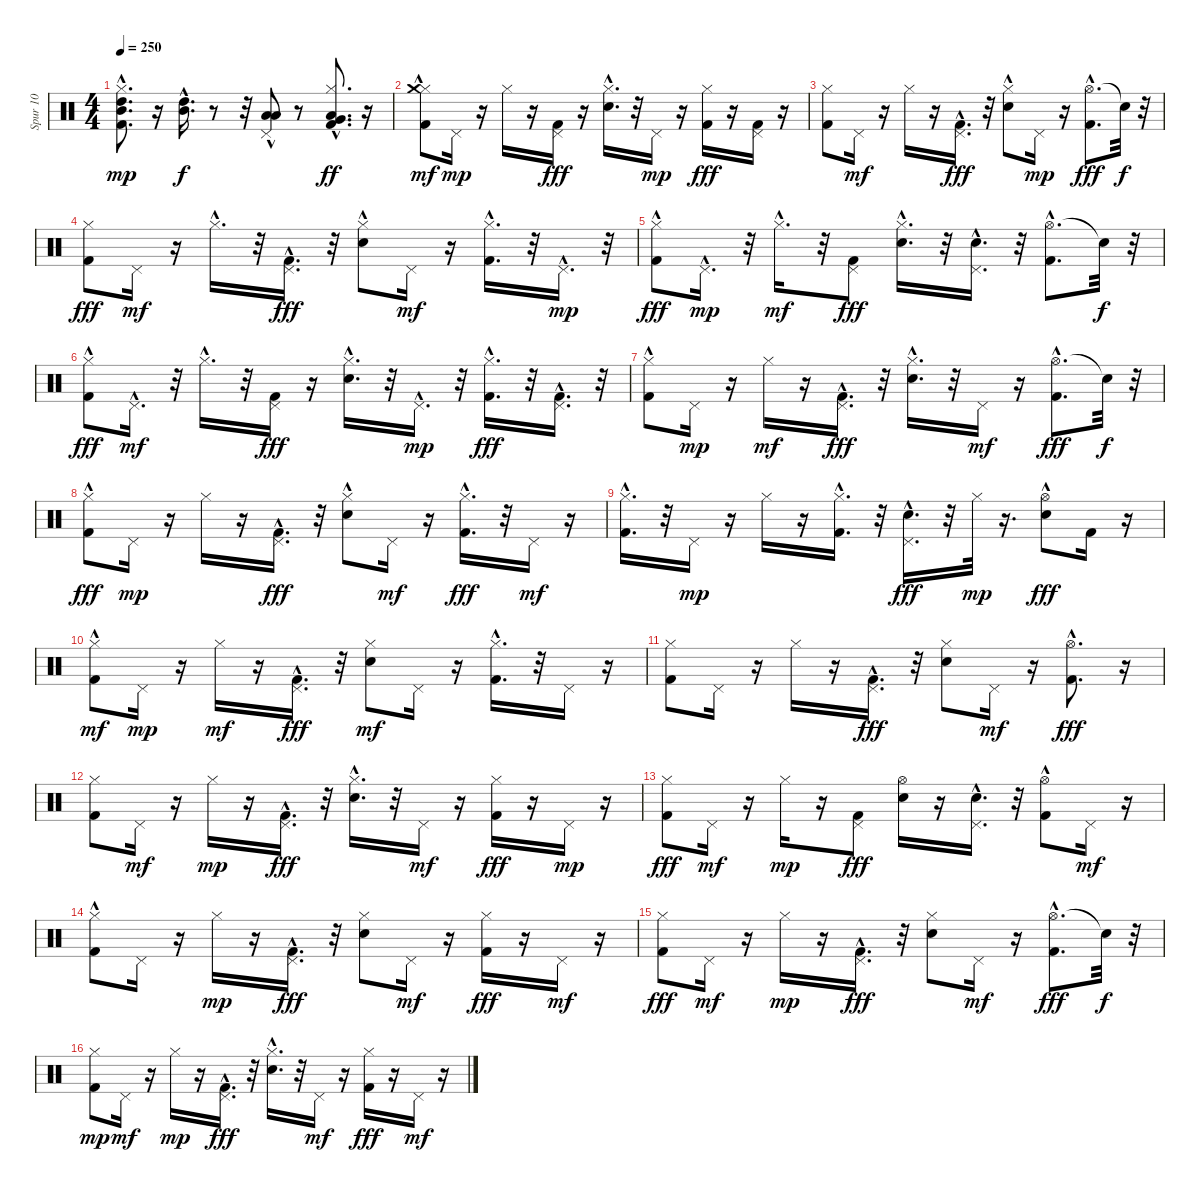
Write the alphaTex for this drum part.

\track ("Spur 10" "Spur 10") {instrument percussion}
\staff {score}
\articulation defaults
\ts (4 4)
\tempo 250
\clef neutral
\ks c
("Mid Tom (hit)"{hac} "Kick (hit) 2"{hac} "Hi-Hat (closed)" "High Tom (hit)"{hac}).8{d dy mp} r.16 ("Mid Tom (hit)"{hac} "High Tom (hit)"{hac}).16{d dy f} r.8 r.32 ("Pedal Hi-Hat (hit)" "Low Tom (hit)"{hac} "Low Tom (hit)"{hac}).8 r.8 ("Hi-Hat (closed)"{hac} "Kick (hit) 2"{hac} "Very Low Tom (hit)" "Low Tom (hit)").8{d dy ff} r.16 |
("Hi-Hat (closed)" "Kick (hit) 2"{hac} "Crash medium (hit)"{hac}).8{dy mf} "Pedal Hi-Hat (hit)".16{dy mp} r.16 "Hi-Hat (closed)".16 r.16 ("Pedal Hi-Hat (hit)" "Kick (hit) 2").16{dy fff} r.16 ("Hi-Hat (closed)" "Snare (hit) 2"{hac}).16{d} r.32 "Pedal Hi-Hat (hit)".16{dy mp} r.16 ("Hi-Hat (closed)" "Kick (hit) 2").16{dy fff} r.16 ("Pedal Hi-Hat (hit)" "Kick (hit) 2").16 r.16 |
("Hi-Hat (closed)" "Kick (hit) 2").8 "Pedal Hi-Hat (hit)".16{dy mf} r.16 "Hi-Hat (closed)".16 r.16 ("Pedal Hi-Hat (hit)" "Kick (hit) 2"{hac}).16{d dy fff} r.32 ("Hi-Hat (closed)"{hac} "Snare (hit) 2").8 "Pedal Hi-Hat (hit)".16{dy mp} r.16 ("Hi-Hat (open)"{hac} "Kick (hit) 2"{hac}).8{d dy fff} "Snare (hit)"{t}.32{dy f} r.32 |
("Hi-Hat (closed)" "Kick (hit) 2").8{dy fff} "Pedal Hi-Hat (hit)".16{dy mf} r.16 "Hi-Hat (closed)"{hac}.16{d} r.32 ("Pedal Hi-Hat (hit)"{hac} "Kick (hit) 2"{hac}).16{d dy fff} r.32 ("Hi-Hat (closed)"{hac} "Snare (hit) 2").8 "Pedal Hi-Hat (hit)".16{dy mf} r.16 ("Kick (hit) 2"{hac} "Hi-Hat (closed)"{hac}).16{d} r.32 "Pedal Hi-Hat (hit)"{hac}.16{d dy mp} r.32 |
("Hi-Hat (closed)"{hac} "Kick (hit) 2").8{dy fff} "Pedal Hi-Hat (hit)"{hac}.16{d dy mp} r.32 "Hi-Hat (closed)"{hac}.16{d dy mf} r.32 ("Pedal Hi-Hat (hit)" "Kick (hit) 2").8{dy fff} ("Hi-Hat (closed)"{hac} "Snare (hit) 2").16{d} r.32 ("Pedal Hi-Hat (hit)" "Snare (hit) 2"{hac}).16{d} r.32 ("Hi-Hat (open)"{hac} "Kick (hit) 2"{hac}).8{d} "Snare (hit)"{t}.32{dy f} r.32 |
("Hi-Hat (closed)" "Kick (hit) 2"{hac}).8{dy fff} "Pedal Hi-Hat (hit)"{hac}.16{d dy mf} r.32 "Hi-Hat (closed)"{hac}.16{d} r.32 ("Pedal Hi-Hat (hit)" "Kick (hit) 2").16{dy fff} r.16 ("Hi-Hat (closed)"{hac} "Snare (hit) 2"{hac}).16{d} r.32 "Pedal Hi-Hat (hit)"{hac}.16{d dy mp} r.32 ("Hi-Hat (closed)"{hac} "Kick (hit) 2").16{d dy fff} r.32 ("Pedal Hi-Hat (hit)"{hac} "Kick (hit) 2").16{d} r.32 |
("Hi-Hat (closed)"{hac} "Kick (hit) 2").8 "Pedal Hi-Hat (hit)".16{dy mp} r.16 "Hi-Hat (closed)".16{dy mf} r.16 ("Pedal Hi-Hat (hit)" "Kick (hit) 2"{hac}).16{d dy fff} r.32 ("Hi-Hat (closed)" "Snare (hit) 2"{hac}).16{d} r.32 "Pedal Hi-Hat (hit)".16{dy mf} r.16 ("Hi-Hat (open)"{hac} "Kick (hit) 2"{hac}).8{d dy fff} "Snare (hit)"{t}.32{dy f} r.32 |
("Hi-Hat (closed)"{hac} "Kick (hit) 2").8{dy fff} "Pedal Hi-Hat (hit)".16{dy mp} r.16 "Hi-Hat (closed)".16 r.16 ("Pedal Hi-Hat (hit)" "Kick (hit) 2"{hac}).16{d dy fff} r.32 ("Hi-Hat (closed)"{hac} "Snare (hit) 2").8 "Pedal Hi-Hat (hit)".16{dy mf} r.16 ("Hi-Hat (closed)"{hac} "Kick (hit) 2"{hac}).16{d dy fff} r.32 "Pedal Hi-Hat (hit)".16{dy mf} r.16 |
("Kick (hit) 2"{hac} "Hi-Hat (closed)"{hac}).16{d} r.32 "Pedal Hi-Hat (hit)".16{dy mp} r.16 "Hi-Hat (closed)".16 r.16 ("Kick (hit) 2"{hac} "Hi-Hat (closed)").16{d} r.32 ("Pedal Hi-Hat (hit)" "Snare (hit) 2"{hac}).16{d dy fff} r.32 "Hi-Hat (closed)".32{dy mp} r.16{d} ("Hi-Hat (open)"{hac} "Snare (hit) 2"{hac}).8{dy fff} "Kick (hit) 2".16 r.16 |
("Kick (hit) 2"{hac} "Hi-Hat (closed)").8{dy mf} "Pedal Hi-Hat (hit)".16{dy mp} r.16 "Hi-Hat (closed)".16{dy mf} r.16 ("Pedal Hi-Hat (hit)" "Kick (hit) 2"{hac}).16{d dy fff} r.32 ("Snare (hit) 2" "Hi-Hat (closed)").8{dy mf} "Pedal Hi-Hat (hit)".16 r.16 ("Kick (hit) 2"{hac} "Hi-Hat (closed)").16{d} r.32 "Pedal Hi-Hat (hit)".16 r.16 |
("Kick (hit) 2" "Hi-Hat (closed)").8 "Pedal Hi-Hat (hit)".16 r.16 "Hi-Hat (closed)".16 r.16 ("Pedal Hi-Hat (hit)" "Kick (hit) 2"{hac}).16{d dy fff} r.32 ("Hi-Hat (closed)" "Snare (hit) 2").8 "Pedal Hi-Hat (hit)".16{dy mf} r.16 ("Hi-Hat (open)"{hac} "Kick (hit) 2"{hac}).8{d dy fff} r.16 |
("Hi-Hat (closed)" "Kick (hit) 2").8 "Pedal Hi-Hat (hit)".16{dy mf} r.16 "Hi-Hat (closed)".16{dy mp} r.16 ("Pedal Hi-Hat (hit)" "Kick (hit) 2"{hac}).16{d dy fff} r.32 ("Hi-Hat (closed)" "Snare (hit) 2"{hac}).16{d} r.32 "Pedal Hi-Hat (hit)".16{dy mf} r.16 ("Hi-Hat (closed)" "Kick (hit) 2").16{dy fff} r.16 "Pedal Hi-Hat (hit)".16{dy mp} r.16 |
("Hi-Hat (closed)" "Kick (hit) 2").8{dy fff} "Pedal Hi-Hat (hit)".16{dy mf} r.16 "Hi-Hat (closed)".16{dy mp} r.16 ("Pedal Hi-Hat (hit)" "Kick (hit) 2").8{dy fff} ("Hi-Hat (open)" "Snare (hit) 2").16 r.16 ("Pedal Hi-Hat (hit)" "Snare (hit) 2"{hac}).16{d} r.32 ("Hi-Hat (open)" "Kick (hit) 2"{hac}).8 "Pedal Hi-Hat (hit)".16{dy mf} r.16 |
("Kick (hit) 2"{hac} "Hi-Hat (closed)").8 "Pedal Hi-Hat (hit)".16 r.16 "Hi-Hat (closed)".16{dy mp} r.16 ("Pedal Hi-Hat (hit)" "Kick (hit) 2"{hac}).16{d dy fff} r.32 ("Hi-Hat (closed)" "Snare (hit) 2").8 "Pedal Hi-Hat (hit)".16{dy mf} r.16 ("Hi-Hat (closed)" "Kick (hit) 2").16{dy fff} r.16 "Pedal Hi-Hat (hit)".16{dy mf} r.16 |
("Hi-Hat (closed)" "Kick (hit) 2").8{dy fff} "Pedal Hi-Hat (hit)".16{dy mf} r.16 "Hi-Hat (closed)".16{dy mp} r.16 ("Pedal Hi-Hat (hit)" "Kick (hit) 2"{hac}).16{d dy fff} r.32 ("Hi-Hat (closed)" "Snare (hit) 2").8 "Pedal Hi-Hat (hit)".16{dy mf} r.16 ("Hi-Hat (open)"{hac} "Kick (hit) 2").8{d dy fff} "Snare (hit)"{t}.32{dy f} r.32 |
("Kick (hit) 2" "Hi-Hat (closed)").8{dy mp} "Pedal Hi-Hat (hit)".16{dy mf} r.16 "Hi-Hat (closed)".16{dy mp} r.16 ("Pedal Hi-Hat (hit)" "Kick (hit) 2"{hac}).16{d dy fff} r.32 ("Hi-Hat (closed)" "Snare (hit) 2"{hac}).16{d} r.32 "Pedal Hi-Hat (hit)".16{dy mf} r.16 ("Hi-Hat (closed)" "Kick (hit) 2").16{dy fff} r.16 "Pedal Hi-Hat (hit)".16{dy mf} r.16
